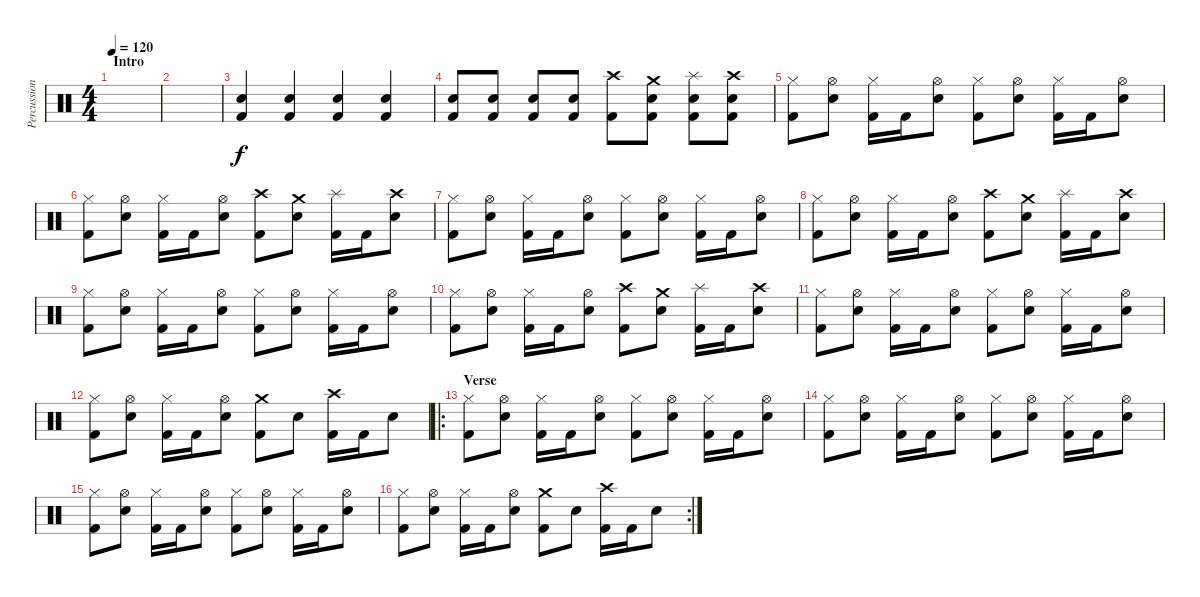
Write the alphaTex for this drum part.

\track ("Percussion" "Percussion") {instrument percussion}
\staff {score}
\articulation defaults
\ts (4 4)
\section ("" "Intro")
\tempo 120
\clef neutral
\ks c
|
|
("Kick (hit) 2" "Snare (hit) 2").4 ("Kick (hit) 2" "Snare (hit) 2").4 ("Kick (hit) 2" "Snare (hit) 2").4 ("Kick (hit) 2" "Snare (hit) 2").4 |
("Kick (hit) 2" "Snare (hit) 2").8 ("Kick (hit) 2" "Snare (hit) 2").8 ("Kick (hit) 2" "Snare (hit) 2").8 ("Kick (hit) 2" "Snare (hit) 2").8 ("Crash high (hit)" "Kick (hit) 2").8 ("Crash medium (hit)" "Kick (hit) 2" "Snare (hit) 2").8 ("Splash (hit)" "Kick (hit) 2" "Snare (hit) 2").8 ("Crash high (hit)" "Kick (hit) 2" "Snare (hit) 2").8 |
("Hi-Hat (closed)" "Kick (hit) 2").8 ("Hi-Hat (open)" "Snare (hit) 2").8 ("Hi-Hat (closed)" "Kick (hit) 2").16 "Kick (hit) 2".16 ("Hi-Hat (open)" "Snare (hit) 2").8 ("Hi-Hat (closed)" "Kick (hit) 2").8 ("Hi-Hat (open)" "Snare (hit) 2").8 ("Hi-Hat (closed)" "Kick (hit) 2").16 "Kick (hit) 2".16 ("Hi-Hat (open)" "Snare (hit) 2").8 |
("Hi-Hat (closed)" "Kick (hit) 2").8 ("Hi-Hat (open)" "Snare (hit) 2").8 ("Hi-Hat (closed)" "Kick (hit) 2").16 "Kick (hit) 2".16 ("Hi-Hat (open)" "Snare (hit) 2").8 ("Crash high (hit)" "Kick (hit) 2").8 ("Crash medium (hit)" "Snare (hit) 2").8 ("Splash (hit)" "Kick (hit) 2").16 "Kick (hit) 2".16 ("Crash high (hit)" "Snare (hit) 2").8 |
("Hi-Hat (closed)" "Kick (hit) 2").8 ("Hi-Hat (open)" "Snare (hit) 2").8 ("Hi-Hat (closed)" "Kick (hit) 2").16 "Kick (hit) 2".16 ("Hi-Hat (open)" "Snare (hit) 2").8 ("Hi-Hat (closed)" "Kick (hit) 2").8 ("Hi-Hat (open)" "Snare (hit) 2").8 ("Hi-Hat (closed)" "Kick (hit) 2").16 "Kick (hit) 2".16 ("Hi-Hat (open)" "Snare (hit) 2").8 |
("Hi-Hat (closed)" "Kick (hit) 2").8 ("Hi-Hat (open)" "Snare (hit) 2").8 ("Hi-Hat (closed)" "Kick (hit) 2").16 "Kick (hit) 2".16 ("Hi-Hat (open)" "Snare (hit) 2").8 ("Crash high (hit)" "Kick (hit) 2").8 ("Crash medium (hit)" "Snare (hit) 2").8 ("Splash (hit)" "Kick (hit) 2").16 "Kick (hit) 2".16 ("Crash high (hit)" "Snare (hit) 2").8 |
("Hi-Hat (closed)" "Kick (hit) 2").8 ("Hi-Hat (open)" "Snare (hit) 2").8 ("Hi-Hat (closed)" "Kick (hit) 2").16 "Kick (hit) 2".16 ("Hi-Hat (open)" "Snare (hit) 2").8 ("Hi-Hat (closed)" "Kick (hit) 2").8 ("Hi-Hat (open)" "Snare (hit) 2").8 ("Hi-Hat (closed)" "Kick (hit) 2").16 "Kick (hit) 2".16 ("Hi-Hat (open)" "Snare (hit) 2").8 |
("Hi-Hat (closed)" "Kick (hit) 2").8 ("Hi-Hat (open)" "Snare (hit) 2").8 ("Hi-Hat (closed)" "Kick (hit) 2").16 "Kick (hit) 2".16 ("Hi-Hat (open)" "Snare (hit) 2").8 ("Crash high (hit)" "Kick (hit) 2").8 ("Crash medium (hit)" "Snare (hit) 2").8 ("Splash (hit)" "Kick (hit) 2").16 "Kick (hit) 2".16 ("Crash high (hit)" "Snare (hit) 2").8 |
("Hi-Hat (closed)" "Kick (hit) 2").8 ("Hi-Hat (open)" "Snare (hit) 2").8 ("Hi-Hat (closed)" "Kick (hit) 2").16 "Kick (hit) 2".16 ("Hi-Hat (open)" "Snare (hit) 2").8 ("Hi-Hat (closed)" "Kick (hit) 2").8 ("Hi-Hat (open)" "Snare (hit) 2").8 ("Hi-Hat (closed)" "Kick (hit) 2").16 "Kick (hit) 2".16 ("Hi-Hat (open)" "Snare (hit) 2").8 |
("Hi-Hat (closed)" "Kick (hit) 2").8 ("Hi-Hat (open)" "Snare (hit) 2").8 ("Hi-Hat (closed)" "Kick (hit) 2").16 "Kick (hit) 2".16 ("Hi-Hat (open)" "Snare (hit) 2").8 ("Crash medium (hit)" "Kick (hit) 2").8 "Snare (hit) 2".8 ("Crash high (hit)" "Kick (hit) 2").16 "Kick (hit) 2".16 "Snare (hit) 2".8 |
\ro
\section ("" "Verse")
("Hi-Hat (closed)" "Kick (hit) 2").8 ("Hi-Hat (open)" "Snare (hit) 2").8 ("Hi-Hat (closed)" "Kick (hit) 2").16 "Kick (hit) 2".16 ("Hi-Hat (open)" "Snare (hit) 2").8 ("Hi-Hat (closed)" "Kick (hit) 2").8 ("Hi-Hat (open)" "Snare (hit) 2").8 ("Hi-Hat (closed)" "Kick (hit) 2").16 "Kick (hit) 2".16 ("Hi-Hat (open)" "Snare (hit) 2").8 |
("Hi-Hat (closed)" "Kick (hit) 2").8 ("Hi-Hat (open)" "Snare (hit) 2").8 ("Hi-Hat (closed)" "Kick (hit) 2").16 "Kick (hit) 2".16 ("Hi-Hat (open)" "Snare (hit) 2").8 ("Hi-Hat (closed)" "Kick (hit) 2").8 ("Hi-Hat (open)" "Snare (hit) 2").8 ("Hi-Hat (closed)" "Kick (hit) 2").16 "Kick (hit) 2".16 ("Hi-Hat (open)" "Snare (hit) 2").8 |
("Hi-Hat (closed)" "Kick (hit) 2").8 ("Hi-Hat (open)" "Snare (hit) 2").8 ("Hi-Hat (closed)" "Kick (hit) 2").16 "Kick (hit) 2".16 ("Hi-Hat (open)" "Snare (hit) 2").8 ("Hi-Hat (closed)" "Kick (hit) 2").8 ("Hi-Hat (open)" "Snare (hit) 2").8 ("Hi-Hat (closed)" "Kick (hit) 2").16 "Kick (hit) 2".16 ("Hi-Hat (open)" "Snare (hit) 2").8 |
\rc 2
("Hi-Hat (closed)" "Kick (hit) 2").8 ("Hi-Hat (open)" "Snare (hit) 2").8 ("Hi-Hat (closed)" "Kick (hit) 2").16 "Kick (hit) 2".16 ("Hi-Hat (open)" "Snare (hit) 2").8 ("Crash medium (hit)" "Kick (hit) 2").8 "Snare (hit) 2".8 ("Crash high (hit)" "Kick (hit) 2").16 "Kick (hit) 2".16 "Snare (hit) 2".8
